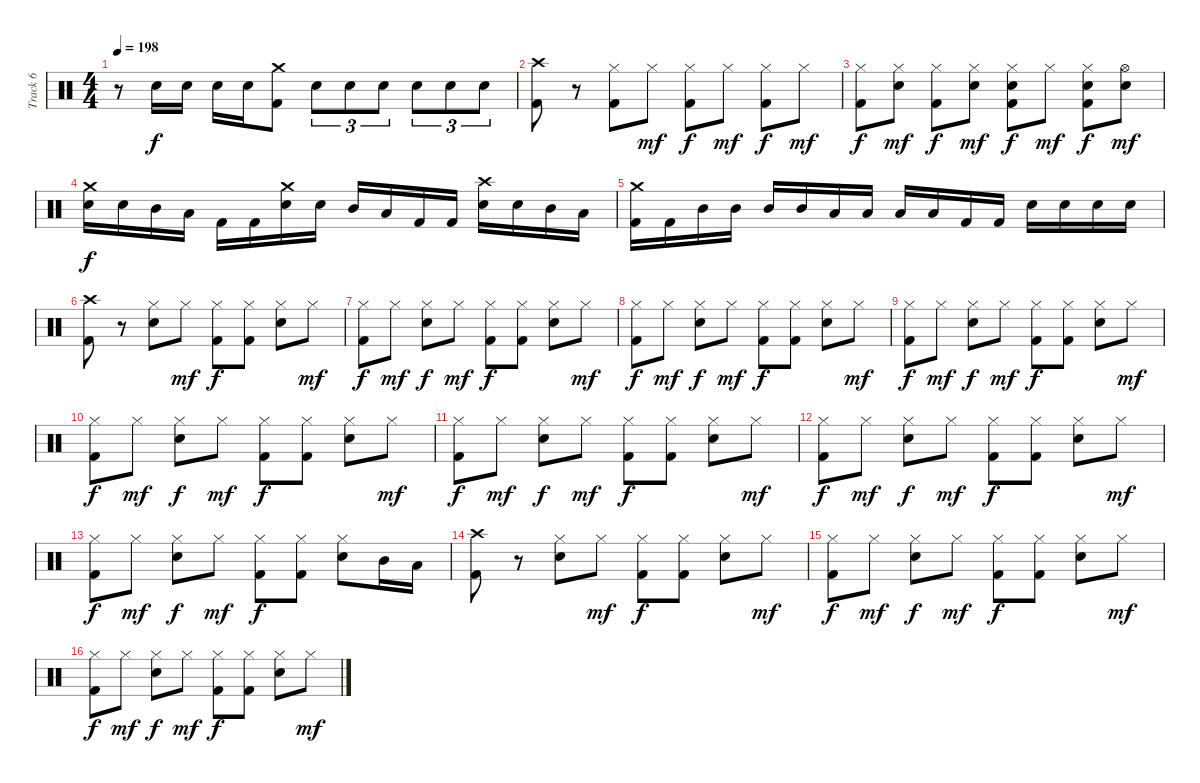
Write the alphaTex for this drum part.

\track ("Track 6" "Track 6") {instrument percussion}
\staff {score}
\articulation defaults
\ts (4 4)
\tempo 198
\clef neutral
\ks c
r.8{dy f} "Electric Snare (hit)".16 "Electric Snare (hit)".16 "Electric Snare (hit)".16 "Electric Snare (hit)".16 ("Crash medium (hit)" "Kick (hit) 2").8 "Electric Snare (hit)".8{tu (3 2)} "Electric Snare (hit)".8{tu (3 2)} "Electric Snare (hit)".8{tu (3 2)} "Electric Snare (hit)".8{tu (3 2)} "Electric Snare (hit)".8{tu (3 2)} "Electric Snare (hit)".8{tu (3 2)} |
("Crash high (hit)" "Kick (hit) 2").8 r.8 ("Hi-Hat (closed)" "Kick (hit) 2").8 "Hi-Hat (closed)".8{dy mf} ("Hi-Hat (closed)" "Kick (hit) 2").8{dy f} "Hi-Hat (closed)".8{dy mf} ("Hi-Hat (closed)" "Kick (hit) 2").8{dy f} "Hi-Hat (closed)".8{dy mf} |
("Hi-Hat (closed)" "Kick (hit) 2").8{dy f} ("Hi-Hat (closed)" "Electric Snare (hit)").8{dy mf} ("Hi-Hat (closed)" "Kick (hit) 2").8{dy f} ("Hi-Hat (closed)" "Electric Snare (hit)").8{dy mf} ("Hi-Hat (closed)" "Electric Snare (hit)" "Kick (hit) 2").8{dy f} "Hi-Hat (closed)".8{dy mf} ("Hi-Hat (closed)" "Electric Snare (hit)" "Kick (hit) 2").8{dy f} ("Hi-Hat (open)" "Electric Snare (hit)").8{dy mf} |
("Crash medium (hit)" "Electric Snare (hit)").16{dy f} "Electric Snare (hit)".16 "Mid Tom (hit)".16 "Low Tom (hit)".16 "Kick (hit) 2".16 "Kick (hit) 2".16 ("Crash medium (hit)" "Electric Snare (hit)").16 "Electric Snare (hit)".16 "Mid Tom (hit)".16 "Low Tom (hit)".16 "Kick (hit) 2".16 "Kick (hit) 2".16 ("Crash high (hit)" "Electric Snare (hit)").16 "Electric Snare (hit)".16 "Mid Tom (hit)".16 "Low Tom (hit)".16 |
("Crash medium (hit)" "Kick (hit) 2").16 "Kick (hit) 2".16 "Mid Tom (hit)".16 "Mid Tom (hit)".16 "Mid Tom (hit)".16 "Mid Tom (hit)".16 "Low Tom (hit)".16 "Low Tom (hit)".16 "Low Tom (hit)".16 "Low Tom (hit)".16 "Kick (hit) 2".16 "Kick (hit) 2".16 "Electric Snare (hit)".16 "Electric Snare (hit)".16 "Electric Snare (hit)".16 "Electric Snare (hit)".16 |
("Crash high (hit)" "Kick (hit) 2").8 r.8 ("Hi-Hat (closed)" "Electric Snare (hit)").8 "Hi-Hat (closed)".8{dy mf} ("Hi-Hat (closed)" "Kick (hit) 2").8{dy f} ("Hi-Hat (closed)" "Kick (hit) 2").8 ("Hi-Hat (closed)" "Electric Snare (hit)").8 "Hi-Hat (closed)".8{dy mf} |
("Hi-Hat (closed)" "Kick (hit) 2").8{dy f} "Hi-Hat (closed)".8{dy mf} ("Hi-Hat (closed)" "Electric Snare (hit)").8{dy f} "Hi-Hat (closed)".8{dy mf} ("Hi-Hat (closed)" "Kick (hit) 2").8{dy f} ("Hi-Hat (closed)" "Kick (hit) 2").8 ("Hi-Hat (closed)" "Electric Snare (hit)").8 "Hi-Hat (closed)".8{dy mf} |
("Hi-Hat (closed)" "Kick (hit) 2").8{dy f} "Hi-Hat (closed)".8{dy mf} ("Hi-Hat (closed)" "Electric Snare (hit)").8{dy f} "Hi-Hat (closed)".8{dy mf} ("Hi-Hat (closed)" "Kick (hit) 2").8{dy f} ("Hi-Hat (closed)" "Kick (hit) 2").8 ("Hi-Hat (closed)" "Electric Snare (hit)").8 "Hi-Hat (closed)".8{dy mf} |
("Hi-Hat (closed)" "Kick (hit) 2").8{dy f} "Hi-Hat (closed)".8{dy mf} ("Hi-Hat (closed)" "Electric Snare (hit)").8{dy f} "Hi-Hat (closed)".8{dy mf} ("Hi-Hat (closed)" "Kick (hit) 2").8{dy f} ("Hi-Hat (closed)" "Kick (hit) 2").8 ("Hi-Hat (closed)" "Electric Snare (hit)").8 "Hi-Hat (closed)".8{dy mf} |
("Hi-Hat (closed)" "Kick (hit) 2").8{dy f} "Hi-Hat (closed)".8{dy mf} ("Hi-Hat (closed)" "Electric Snare (hit)").8{dy f} "Hi-Hat (closed)".8{dy mf} ("Hi-Hat (closed)" "Kick (hit) 2").8{dy f} ("Hi-Hat (closed)" "Kick (hit) 2").8 ("Hi-Hat (closed)" "Electric Snare (hit)").8 "Hi-Hat (closed)".8{dy mf} |
("Hi-Hat (closed)" "Kick (hit) 2").8{dy f} "Hi-Hat (closed)".8{dy mf} ("Hi-Hat (closed)" "Electric Snare (hit)").8{dy f} "Hi-Hat (closed)".8{dy mf} ("Hi-Hat (closed)" "Kick (hit) 2").8{dy f} ("Hi-Hat (closed)" "Kick (hit) 2").8 ("Hi-Hat (closed)" "Electric Snare (hit)").8 "Hi-Hat (closed)".8{dy mf} |
("Hi-Hat (closed)" "Kick (hit) 2").8{dy f} "Hi-Hat (closed)".8{dy mf} ("Hi-Hat (closed)" "Electric Snare (hit)").8{dy f} "Hi-Hat (closed)".8{dy mf} ("Hi-Hat (closed)" "Kick (hit) 2").8{dy f} ("Hi-Hat (closed)" "Kick (hit) 2").8 ("Hi-Hat (closed)" "Electric Snare (hit)").8 "Hi-Hat (closed)".8{dy mf} |
("Hi-Hat (closed)" "Kick (hit) 2").8{dy f} "Hi-Hat (closed)".8{dy mf} ("Hi-Hat (closed)" "Electric Snare (hit)").8{dy f} "Hi-Hat (closed)".8{dy mf} ("Hi-Hat (closed)" "Kick (hit) 2").8{dy f} ("Hi-Hat (closed)" "Kick (hit) 2").8 ("Hi-Hat (closed)" "Electric Snare (hit)").8 "Mid Tom (hit)".16 "Low Tom (hit)".16 |
("Crash high (hit)" "Kick (hit) 2").8 r.8 ("Hi-Hat (closed)" "Electric Snare (hit)").8 "Hi-Hat (closed)".8{dy mf} ("Hi-Hat (closed)" "Kick (hit) 2").8{dy f} ("Hi-Hat (closed)" "Kick (hit) 2").8 ("Hi-Hat (closed)" "Electric Snare (hit)").8 "Hi-Hat (closed)".8{dy mf} |
("Hi-Hat (closed)" "Kick (hit) 2").8{dy f} "Hi-Hat (closed)".8{dy mf} ("Hi-Hat (closed)" "Electric Snare (hit)").8{dy f} "Hi-Hat (closed)".8{dy mf} ("Hi-Hat (closed)" "Kick (hit) 2").8{dy f} ("Hi-Hat (closed)" "Kick (hit) 2").8 ("Hi-Hat (closed)" "Electric Snare (hit)").8 "Hi-Hat (closed)".8{dy mf} |
("Hi-Hat (closed)" "Kick (hit) 2").8{dy f} "Hi-Hat (closed)".8{dy mf} ("Hi-Hat (closed)" "Electric Snare (hit)").8{dy f} "Hi-Hat (closed)".8{dy mf} ("Hi-Hat (closed)" "Kick (hit) 2").8{dy f} ("Hi-Hat (closed)" "Kick (hit) 2").8 ("Hi-Hat (closed)" "Electric Snare (hit)").8 "Hi-Hat (closed)".8{dy mf}
